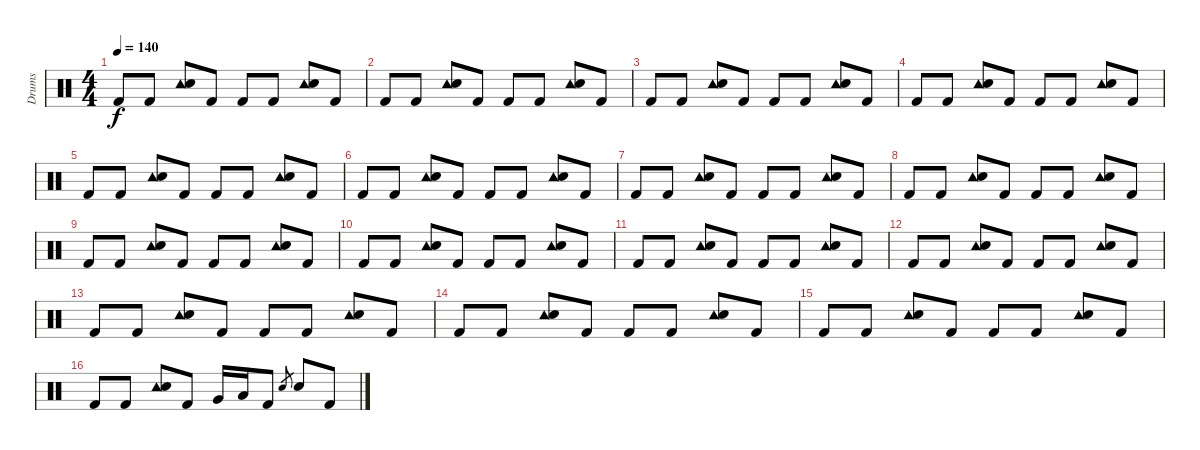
\track ("Drums" "Drums") {instrument percussion}
\staff {score}
\articulation defaults
\ts (4 4)
\tempo 140
\clef neutral
\ks c "Kick (hit) 2".8{dy f} "Kick (hit) 2".8
("Tambourine (hit)" "Electric Snare (hit)").8 "Kick (hit) 2".8 "Kick (hit) 2".8 "Kick (hit) 2".8 ("Tambourine (hit)" "Electric Snare (hit)").8 "Kick (hit) 2".8 |
"Kick (hit) 2".8 "Kick (hit) 2".8 ("Tambourine (hit)" "Electric Snare (hit)").8 "Kick (hit) 2".8 "Kick (hit) 2".8 "Kick (hit) 2".8 ("Tambourine (hit)" "Electric Snare (hit)").8 "Kick (hit) 2".8 |
"Kick (hit) 2".8 "Kick (hit) 2".8 ("Tambourine (hit)" "Electric Snare (hit)").8 "Kick (hit) 2".8 "Kick (hit) 2".8 "Kick (hit) 2".8 ("Tambourine (hit)" "Electric Snare (hit)").8 "Kick (hit) 2".8 |
"Kick (hit) 2".8 "Kick (hit) 2".8 ("Tambourine (hit)" "Electric Snare (hit)").8 "Kick (hit) 2".8 "Kick (hit) 2".8 "Kick (hit) 2".8 ("Tambourine (hit)" "Electric Snare (hit)").8 "Kick (hit) 2".8 |
"Kick (hit) 2".8 "Kick (hit) 2".8 ("Tambourine (hit)" "Electric Snare (hit)").8 "Kick (hit) 2".8 "Kick (hit) 2".8 "Kick (hit) 2".8 ("Tambourine (hit)" "Electric Snare (hit)").8 "Kick (hit) 2".8 |
"Kick (hit) 2".8 "Kick (hit) 2".8 ("Tambourine (hit)" "Electric Snare (hit)").8 "Kick (hit) 2".8 "Kick (hit) 2".8 "Kick (hit) 2".8 ("Tambourine (hit)" "Electric Snare (hit)").8 "Kick (hit) 2".8 |
"Kick (hit) 2".8 "Kick (hit) 2".8 ("Tambourine (hit)" "Electric Snare (hit)").8 "Kick (hit) 2".8 "Kick (hit) 2".8 "Kick (hit) 2".8 ("Tambourine (hit)" "Electric Snare (hit)").8 "Kick (hit) 2".8 |
"Kick (hit) 2".8 "Kick (hit) 2".8 ("Tambourine (hit)" "Electric Snare (hit)").8 "Kick (hit) 2".8 "Kick (hit) 2".8 "Kick (hit) 2".8 ("Tambourine (hit)" "Electric Snare (hit)").8 "Kick (hit) 2".8 |
"Kick (hit) 2".8 "Kick (hit) 2".8 ("Tambourine (hit)" "Electric Snare (hit)").8 "Kick (hit) 2".8 "Kick (hit) 2".8 "Kick (hit) 2".8 ("Tambourine (hit)" "Electric Snare (hit)").8 "Kick (hit) 2".8 |
"Kick (hit) 2".8 "Kick (hit) 2".8 ("Tambourine (hit)" "Electric Snare (hit)").8 "Kick (hit) 2".8 "Kick (hit) 2".8 "Kick (hit) 2".8 ("Tambourine (hit)" "Electric Snare (hit)").8 "Kick (hit) 2".8 |
"Kick (hit) 2".8 "Kick (hit) 2".8 ("Tambourine (hit)" "Electric Snare (hit)").8 "Kick (hit) 2".8 "Kick (hit) 2".8 "Kick (hit) 2".8 ("Tambourine (hit)" "Electric Snare (hit)").8 "Kick (hit) 2".8 |
"Kick (hit) 2".8 "Kick (hit) 2".8 ("Tambourine (hit)" "Electric Snare (hit)").8 "Kick (hit) 2".8 "Kick (hit) 2".8 "Kick (hit) 2".8 ("Tambourine (hit)" "Electric Snare (hit)").8 "Kick (hit) 2".8 |
"Kick (hit) 2".8 "Kick (hit) 2".8 ("Tambourine (hit)" "Electric Snare (hit)").8 "Kick (hit) 2".8 "Kick (hit) 2".8 "Kick (hit) 2".8 ("Tambourine (hit)" "Electric Snare (hit)").8 "Kick (hit) 2".8 |
"Kick (hit) 2".8 "Kick (hit) 2".8 ("Tambourine (hit)" "Electric Snare (hit)").8 "Kick (hit) 2".8 "Kick (hit) 2".8 "Kick (hit) 2".8 ("Tambourine (hit)" "Electric Snare (hit)").8 "Kick (hit) 2".8 |
"Kick (hit) 2".8 "Kick (hit) 2".8 ("Tambourine (hit)" "Electric Snare (hit)").8 "Kick (hit) 2".8 "Kick (hit) 2".8 "Kick (hit) 2".8 ("Tambourine (hit)" "Electric Snare (hit)").8 "Kick (hit) 2".8 |
"Kick (hit) 2".8 "Kick (hit) 2".8 ("Tambourine (hit)" "Electric Snare (hit)").8 "Kick (hit) 2".8 "Very Low Tom (hit)".16 "Low Tom (hit)".16 "Kick (hit) 2".8 "Electric Snare (hit)".8{gr} "Electric Snare (hit)".8 "Kick (hit) 2".8
